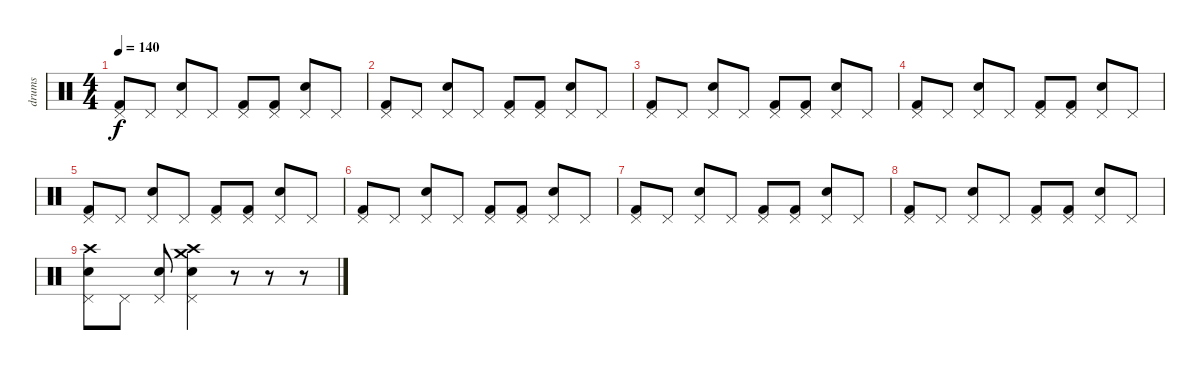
\track ("drums" "drums") {instrument percussion}
\staff {score}
\articulation defaults
\ts (4 4)
\tempo 140
\clef neutral
\ks c
("Kick (hit) 2" "Pedal Hi-Hat (hit)").8{dy f} "Pedal Hi-Hat (hit)".8 ("Snare (hit) 2" "Pedal Hi-Hat (hit)").8 "Pedal Hi-Hat (hit)".8 ("Kick (hit) 2" "Pedal Hi-Hat (hit)").8 ("Kick (hit) 2" "Pedal Hi-Hat (hit)").8 ("Snare (hit) 2" "Pedal Hi-Hat (hit)").8 "Pedal Hi-Hat (hit)".8 |
("Kick (hit) 2" "Pedal Hi-Hat (hit)").8 "Pedal Hi-Hat (hit)".8 ("Snare (hit) 2" "Pedal Hi-Hat (hit)").8 "Pedal Hi-Hat (hit)".8 ("Kick (hit) 2" "Pedal Hi-Hat (hit)").8 ("Kick (hit) 2" "Pedal Hi-Hat (hit)").8 ("Snare (hit) 2" "Pedal Hi-Hat (hit)").8 "Pedal Hi-Hat (hit)".8 |
("Kick (hit) 2" "Pedal Hi-Hat (hit)").8 "Pedal Hi-Hat (hit)".8 ("Snare (hit) 2" "Pedal Hi-Hat (hit)").8 "Pedal Hi-Hat (hit)".8 ("Kick (hit) 2" "Pedal Hi-Hat (hit)").8 ("Kick (hit) 2" "Pedal Hi-Hat (hit)").8 ("Snare (hit) 2" "Pedal Hi-Hat (hit)").8 "Pedal Hi-Hat (hit)".8 |
("Kick (hit) 2" "Pedal Hi-Hat (hit)").8 "Pedal Hi-Hat (hit)".8 ("Snare (hit) 2" "Pedal Hi-Hat (hit)").8 "Pedal Hi-Hat (hit)".8 ("Kick (hit) 2" "Pedal Hi-Hat (hit)").8 ("Kick (hit) 2" "Pedal Hi-Hat (hit)").8 ("Snare (hit) 2" "Pedal Hi-Hat (hit)").8 "Pedal Hi-Hat (hit)".8 |
("Kick (hit) 2" "Pedal Hi-Hat (hit)").8 "Pedal Hi-Hat (hit)".8 ("Snare (hit) 2" "Pedal Hi-Hat (hit)").8 "Pedal Hi-Hat (hit)".8 ("Kick (hit) 2" "Pedal Hi-Hat (hit)").8 ("Kick (hit) 2" "Pedal Hi-Hat (hit)").8 ("Snare (hit) 2" "Pedal Hi-Hat (hit)").8 "Pedal Hi-Hat (hit)".8 |
("Kick (hit) 2" "Pedal Hi-Hat (hit)").8 "Pedal Hi-Hat (hit)".8 ("Snare (hit) 2" "Pedal Hi-Hat (hit)").8 "Pedal Hi-Hat (hit)".8 ("Kick (hit) 2" "Pedal Hi-Hat (hit)").8 ("Kick (hit) 2" "Pedal Hi-Hat (hit)").8 ("Snare (hit) 2" "Pedal Hi-Hat (hit)").8 "Pedal Hi-Hat (hit)".8 |
("Kick (hit) 2" "Pedal Hi-Hat (hit)").8 "Pedal Hi-Hat (hit)".8 ("Snare (hit) 2" "Pedal Hi-Hat (hit)").8 "Pedal Hi-Hat (hit)".8 ("Kick (hit) 2" "Pedal Hi-Hat (hit)").8 ("Kick (hit) 2" "Pedal Hi-Hat (hit)").8 ("Snare (hit) 2" "Pedal Hi-Hat (hit)").8 "Pedal Hi-Hat (hit)".8 |
("Kick (hit) 2" "Pedal Hi-Hat (hit)").8 "Pedal Hi-Hat (hit)".8 ("Snare (hit) 2" "Pedal Hi-Hat (hit)").8 "Pedal Hi-Hat (hit)".8 ("Kick (hit) 2" "Pedal Hi-Hat (hit)").8 ("Kick (hit) 2" "Pedal Hi-Hat (hit)").8 ("Snare (hit) 2" "Pedal Hi-Hat (hit)").8 "Pedal Hi-Hat (hit)".8 |
("Snare (hit) 2" "Pedal Hi-Hat (hit)" "Crash high (hit)").8 "Pedal Hi-Hat (hit)".8 ("Snare (hit) 2" "Pedal Hi-Hat (hit)").8 ("Snare (hit) 2" "Pedal Hi-Hat (hit)" "Crash high (hit)" "Crash medium (hit)").4 r.8 r.8 r.8
